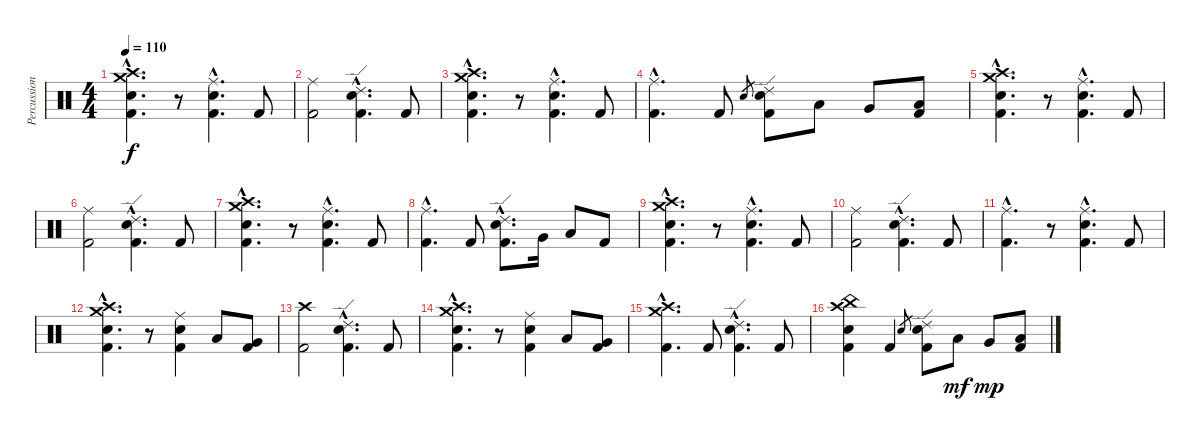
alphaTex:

\track ("Percussion" "Percussion") {instrument percussion}
\staff {score}
\articulation defaults
\ts (4 4)
\tempo 110
\clef neutral
\ks c
("Crash high (hit)"{hac} "Crash medium (hit)"{hac} "Electric Snare (hit)"{hac} "Kick (hit) 2"{hac}).4{d dy f} r.8 ("Ride (middle)"{hac} "Electric Snare (hit)"{hac} "Kick (hit) 2"{hac}).4{d} "Kick (hit) 2".8 |
("Ride (middle)" "Kick (hit) 2").2 ("Ride (edge) 2"{hac} "Electric Snare (hit)"{hac} "Kick (hit) 2"{hac}).4{d} "Kick (hit) 2".8 |
("Crash high (hit)"{hac} "Crash medium (hit)"{hac} "Electric Snare (hit)"{hac} "Kick (hit) 2"{hac}).4{d} r.8 ("Ride (middle)"{hac} "Electric Snare (hit)"{hac} "Kick (hit) 2"{hac}).4{d} "Kick (hit) 2".8 |
("Ride (middle)"{hac} "Kick (hit) 2"{hac}).4{d} "Kick (hit) 2".8 "Electric Snare (hit)".8{gr} ("Ride (edge) 2" "Electric Snare (hit)" "Kick (hit) 2").8 "Low Tom (hit)".8 "Very Low Tom (hit)".8 ("Low Floor Tom (hit)" "Kick (hit) 2").8 |
("Crash high (hit)"{hac} "Crash medium (hit)"{hac} "Electric Snare (hit)"{hac} "Kick (hit) 2"{hac}).4{d} r.8 ("Ride (middle)"{hac} "Electric Snare (hit)"{hac} "Kick (hit) 2"{hac}).4{d} "Kick (hit) 2".8 |
("Ride (middle)" "Kick (hit) 2").2 ("Ride (edge) 2"{hac} "Electric Snare (hit)"{hac} "Kick (hit) 2"{hac}).4{d} "Kick (hit) 2".8 |
("Crash high (hit)"{hac} "Crash medium (hit)"{hac} "Electric Snare (hit)"{hac} "Kick (hit) 2"{hac}).4{d} r.8 ("Ride (middle)"{hac} "Electric Snare (hit)"{hac} "Kick (hit) 2"{hac}).4{d} "Kick (hit) 2".8 |
("Ride (middle)"{hac} "Kick (hit) 2"{hac}).4{d} "Kick (hit) 2".8 ("Ride (edge) 2"{hac} "Electric Snare (hit)"{hac} "Kick (hit) 2"{hac}).8{d} "Very Low Tom (hit)".16 "Low Floor Tom (hit)".8 "Kick (hit) 2".8 |
("Crash high (hit)"{hac} "Crash medium (hit)"{hac} "Electric Snare (hit)"{hac} "Kick (hit) 2"{hac}).4{d} r.8 ("Ride (middle)"{hac} "Electric Snare (hit)"{hac} "Kick (hit) 2"{hac}).4{d} "Kick (hit) 2".8 |
("Ride (middle)" "Kick (hit) 2").2 ("Ride (edge) 2"{hac} "Electric Snare (hit)"{hac} "Kick (hit) 2"{hac}).4{d} "Kick (hit) 2".8 |
("Ride (middle)"{hac} "Kick (hit) 2"{hac}).4{d} r.8 ("Ride (middle)"{hac} "Electric Snare (hit)"{hac} "Kick (hit) 2"{hac}).4{d} "Kick (hit) 2".8 |
("Crash high (hit)"{hac} "Crash medium (hit)"{hac} "Electric Snare (hit)"{hac} "Kick (hit) 2"{hac}).4{d} r.8 ("Ride (middle)" "Electric Snare (hit)" "Kick (hit) 2").4 "Low Tom (hit)".8 ("Very Low Tom (hit)" "Kick (hit) 2").8 |
("Crash high (hit)" "Kick (hit) 2").2 ("Ride (edge) 2"{hac} "Electric Snare (hit)"{hac} "Kick (hit) 2"{hac}).4{d} "Kick (hit) 2".8 |
("Crash high (hit)"{hac} "Crash medium (hit)"{hac} "Electric Snare (hit)"{hac} "Kick (hit) 2"{hac}).4{d} r.8 ("Ride (middle)" "Electric Snare (hit)" "Kick (hit) 2").4 "Low Tom (hit)".8 ("Very Low Tom (hit)" "Kick (hit) 2").8 |
("Crash high (hit)"{hac} "Crash medium (hit)"{hac} "Kick (hit) 2"{hac}).4{d} "Kick (hit) 2".8 ("Ride (edge) 2"{hac} "Electric Snare (hit)"{hac} "Kick (hit) 2"{hac}).4{d} "Kick (hit) 2".8 |
("Crash high (hit)" "China (hit)" "Snare (hit) 2" "Kick (hit) 2").4 "Kick (hit) 2".4 "Electric Snare (hit)".8{gr} ("Ride (edge) 2" "Electric Snare (hit)" "Kick (hit) 2").8 "Low Tom (hit)".8{dy mf} "Very Low Tom (hit)".8{dy mp} ("Low Floor Tom (hit)" "Kick (hit) 2").8
